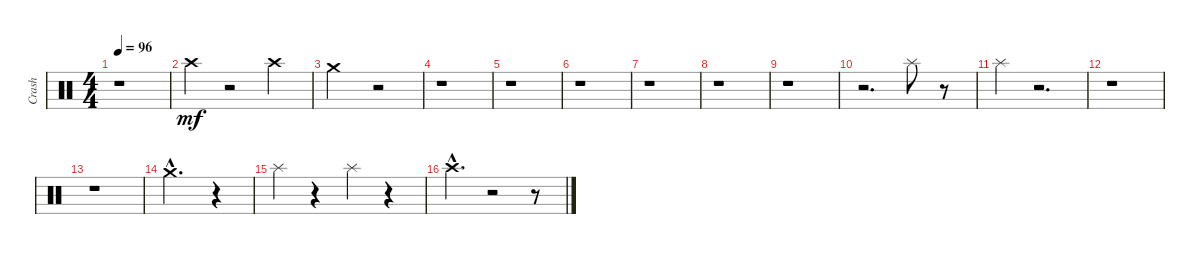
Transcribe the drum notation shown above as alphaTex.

\track ("Crash" "Crash") {instrument percussion}
\staff {score}
\articulation defaults
\ts (4 4)
\tempo 96
\clef neutral
\ks c
r.1{dy mf} |
"Crash high (hit)".4 r.2 "Crash high (hit)".4 |
"Crash medium (hit)".2 r.2 |
r.1 |
r.1 |
r.1 |
r.1 |
r.1 |
r.1 |
r.2{d} "Splash (hit)".8 r.8 |
"Splash (hit)".4 r.2{d} |
r.1 |
r.1 |
"Crash medium (hit)"{hac}.2{d} r.4 |
"Splash (hit)".4 r.4 "Splash (hit)".4 r.4 |
"Crash high (hit)"{hac}.4{d} r.2 r.8
